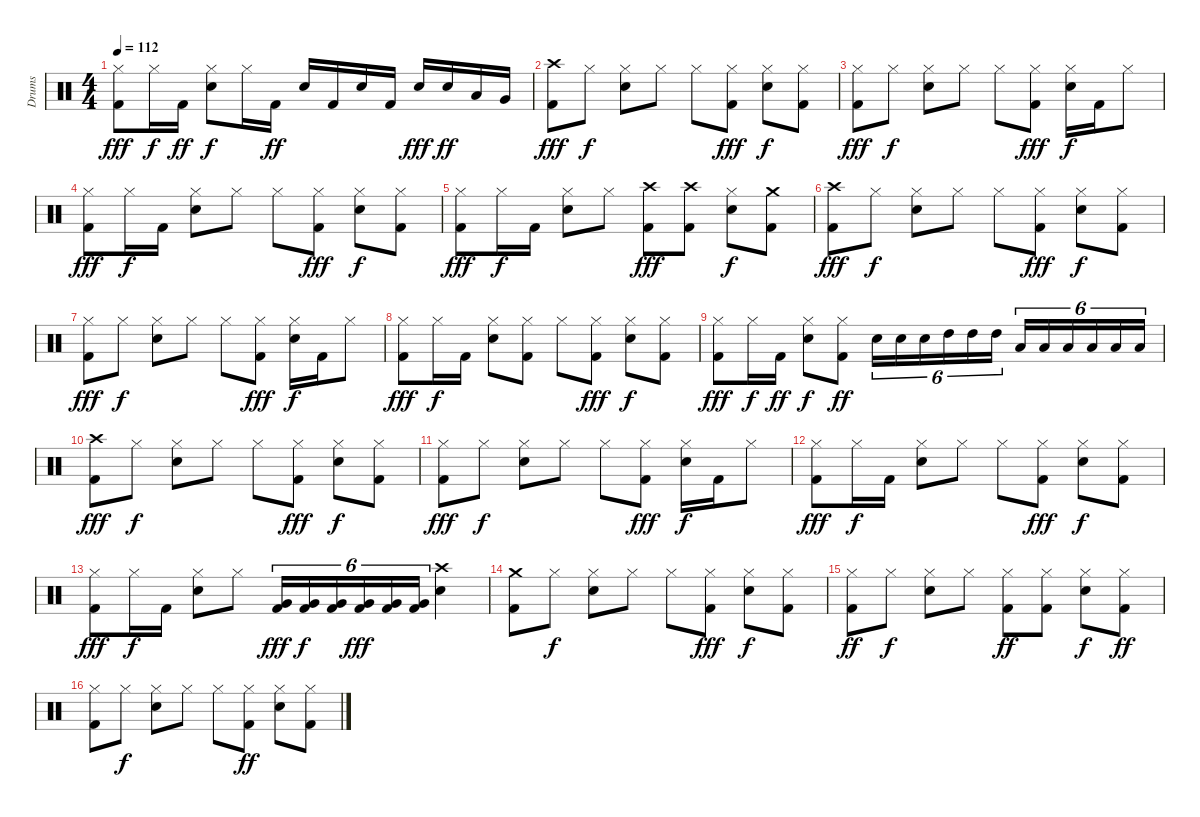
\track ("Drums" "Drums") {instrument percussion}
\staff {score}
\articulation defaults
\ts (4 4)
\tempo 112
\clef neutral
\ks c
("Hi-Hat (closed)" "Kick (hit) 2").8{dy fff} "Hi-Hat (closed)".16{dy f} "Kick (hit) 2".16{dy ff} ("Hi-Hat (closed)" "Snare (hit) 2").8{dy f} "Hi-Hat (closed)".16 "Kick (hit) 2".16{dy ff} "Snare (hit) 2".16 "Kick (hit) 2".16 "Snare (hit) 2".16 "Kick (hit) 2".16 "Snare (hit) 2".16{dy fff} "Snare (hit) 2".16{dy ff} "Low Tom (hit)".16 "Very Low Tom (hit)".16 |
("Kick (hit) 2" "Crash high (hit)").8{dy fff} "Hi-Hat (closed)".8{dy f} ("Hi-Hat (closed)" "Snare (hit) 2").8 "Hi-Hat (closed)".8 "Hi-Hat (closed)".8 ("Hi-Hat (closed)" "Kick (hit) 2").8{dy fff} ("Hi-Hat (closed)" "Snare (hit) 2").8{dy f} ("Hi-Hat (closed)" "Kick (hit) 2").8 |
("Hi-Hat (closed)" "Kick (hit) 2").8{dy fff} "Hi-Hat (closed)".8{dy f} ("Hi-Hat (closed)" "Snare (hit) 2").8 "Hi-Hat (closed)".8 "Hi-Hat (closed)".8 ("Hi-Hat (closed)" "Kick (hit) 2").8{dy fff} ("Hi-Hat (closed)" "Snare (hit) 2").16{dy f} "Kick (hit) 2".16 "Hi-Hat (closed)".8 |
("Hi-Hat (closed)" "Kick (hit) 2").8{dy fff} "Hi-Hat (closed)".16{dy f} "Kick (hit) 2".16 ("Hi-Hat (closed)" "Snare (hit) 2").8 "Hi-Hat (closed)".8 "Hi-Hat (closed)".8 ("Hi-Hat (closed)" "Kick (hit) 2").8{dy fff} ("Hi-Hat (closed)" "Snare (hit) 2").8{dy f} ("Kick (hit) 2" "Hi-Hat (closed)").8 |
("Hi-Hat (closed)" "Kick (hit) 2").8{dy fff} "Hi-Hat (closed)".16{dy f} "Kick (hit) 2".16 ("Hi-Hat (closed)" "Snare (hit) 2").8 "Hi-Hat (closed)".8 ("Crash high (hit)" "Kick (hit) 2").8{dy fff} ("Crash high (hit)" "Kick (hit) 2").8 ("Hi-Hat (closed)" "Snare (hit) 2").8{dy f} ("Crash medium (hit)" "Kick (hit) 2").8 |
("Crash high (hit)" "Kick (hit) 2").8{dy fff} "Hi-Hat (closed)".8{dy f} ("Hi-Hat (closed)" "Snare (hit) 2").8 "Hi-Hat (closed)".8 "Hi-Hat (closed)".8 ("Hi-Hat (closed)" "Kick (hit) 2").8{dy fff} ("Hi-Hat (closed)" "Snare (hit) 2").8{dy f} ("Hi-Hat (closed)" "Kick (hit) 2").8 |
("Hi-Hat (closed)" "Kick (hit) 2").8{dy fff} "Hi-Hat (closed)".8{dy f} ("Hi-Hat (closed)" "Snare (hit) 2").8 "Hi-Hat (closed)".8 "Hi-Hat (closed)".8 ("Hi-Hat (closed)" "Kick (hit) 2").8{dy fff} ("Hi-Hat (closed)" "Snare (hit) 2").16{dy f} "Kick (hit) 2".16 "Hi-Hat (closed)".8 |
("Hi-Hat (closed)" "Kick (hit) 2").8{dy fff} "Hi-Hat (closed)".16{dy f} "Kick (hit) 2".16 ("Hi-Hat (closed)" "Snare (hit) 2").8 ("Kick (hit) 2" "Hi-Hat (closed)").8 "Hi-Hat (closed)".8 ("Hi-Hat (closed)" "Kick (hit) 2").8{dy fff} ("Hi-Hat (closed)" "Snare (hit) 2").8{dy f} ("Kick (hit) 2" "Hi-Hat (closed)").8 |
("Hi-Hat (closed)" "Kick (hit) 2").8{dy fff} "Hi-Hat (closed)".16{dy f} "Kick (hit) 2".16{dy ff} ("Hi-Hat (closed)" "Snare (hit) 2").8{dy f} ("Kick (hit) 2" "Hi-Hat (closed)").8{dy ff} "Snare (hit) 2".16{tu (6 4)} "Snare (hit) 2".16{tu (6 4)} "Snare (hit) 2".16{tu (6 4)} "High Tom (hit)".16{tu (6 4)} "High Tom (hit)".16{tu (6 4)} "High Tom (hit)".16{tu (6 4)} "Low Tom (hit)".16{tu (6 4)} "Low Tom (hit)".16{tu (6 4)} "Low Tom (hit)".16{tu (6 4)} "Low Floor Tom (hit)".16{tu (6 4)} "Low Floor Tom (hit)".16{tu (6 4)} "Low Floor Tom (hit)".16{tu (6 4)} |
("Kick (hit) 2" "Crash high (hit)").8{dy fff} "Hi-Hat (closed)".8{dy f} ("Hi-Hat (closed)" "Snare (hit) 2").8 "Hi-Hat (closed)".8 "Hi-Hat (closed)".8 ("Hi-Hat (closed)" "Kick (hit) 2").8{dy fff} ("Hi-Hat (closed)" "Snare (hit) 2").8{dy f} ("Hi-Hat (closed)" "Kick (hit) 2").8 |
("Hi-Hat (closed)" "Kick (hit) 2").8{dy fff} "Hi-Hat (closed)".8{dy f} ("Hi-Hat (closed)" "Snare (hit) 2").8 "Hi-Hat (closed)".8 "Hi-Hat (closed)".8 ("Hi-Hat (closed)" "Kick (hit) 2").8{dy fff} ("Hi-Hat (closed)" "Snare (hit) 2").16{dy f} "Kick (hit) 2".16 "Hi-Hat (closed)".8 |
("Hi-Hat (closed)" "Kick (hit) 2").8{dy fff} "Hi-Hat (closed)".16{dy f} "Kick (hit) 2".16 ("Hi-Hat (closed)" "Snare (hit) 2").8 "Hi-Hat (closed)".8 "Hi-Hat (closed)".8 ("Hi-Hat (closed)" "Kick (hit) 2").8{dy fff} ("Hi-Hat (closed)" "Snare (hit) 2").8{dy f} ("Kick (hit) 2" "Hi-Hat (closed)").8 |
("Hi-Hat (closed)" "Kick (hit) 2").8{dy fff} "Hi-Hat (closed)".16{dy f} "Kick (hit) 2".16 ("Hi-Hat (closed)" "Snare (hit) 2").8 "Hi-Hat (closed)".8 ("Very Low Tom (hit)" "Kick (hit) 2").16{tu (6 4) dy fff} ("Very Low Tom (hit)" "Kick (hit) 2").16{tu (6 4) dy f} ("Very Low Tom (hit)" "Kick (hit) 2").16{tu (6 4)} ("Very Low Tom (hit)" "Kick (hit) 2").16{tu (6 4) dy fff} ("Very Low Tom (hit)" "Kick (hit) 2").16{tu (6 4)} ("Very Low Tom (hit)" "Kick (hit) 2").16{tu (6 4)} ("Crash high (hit)" "Snare (hit) 2").4 |
("Crash medium (hit)" "Kick (hit) 2").8 "Hi-Hat (closed)".8{dy f} ("Hi-Hat (closed)" "Snare (hit) 2").8 "Hi-Hat (closed)".8 "Hi-Hat (closed)".8 ("Hi-Hat (closed)" "Kick (hit) 2").8{dy fff} ("Hi-Hat (closed)" "Snare (hit) 2").8{dy f} ("Hi-Hat (closed)" "Kick (hit) 2").8 |
("Hi-Hat (closed)" "Kick (hit) 2").8{dy ff} "Hi-Hat (closed)".8{dy f} ("Hi-Hat (closed)" "Snare (hit) 2").8 "Hi-Hat (closed)".8 ("Kick (hit) 2" "Hi-Hat (closed)").8{dy ff} ("Kick (hit) 2" "Hi-Hat (closed)").8 ("Hi-Hat (closed)" "Snare (hit) 2").8{dy f} ("Kick (hit) 2" "Hi-Hat (closed)").8{dy ff} |
("Hi-Hat (closed)" "Kick (hit) 2").8 "Hi-Hat (closed)".8{dy f} ("Hi-Hat (closed)" "Snare (hit) 2").8 "Hi-Hat (closed)".8 "Hi-Hat (closed)".8 ("Hi-Hat (closed)" "Kick (hit) 2").8{dy ff} ("Hi-Hat (closed)" "Snare (hit) 2").8 ("Kick (hit) 2" "Hi-Hat (closed)").8
